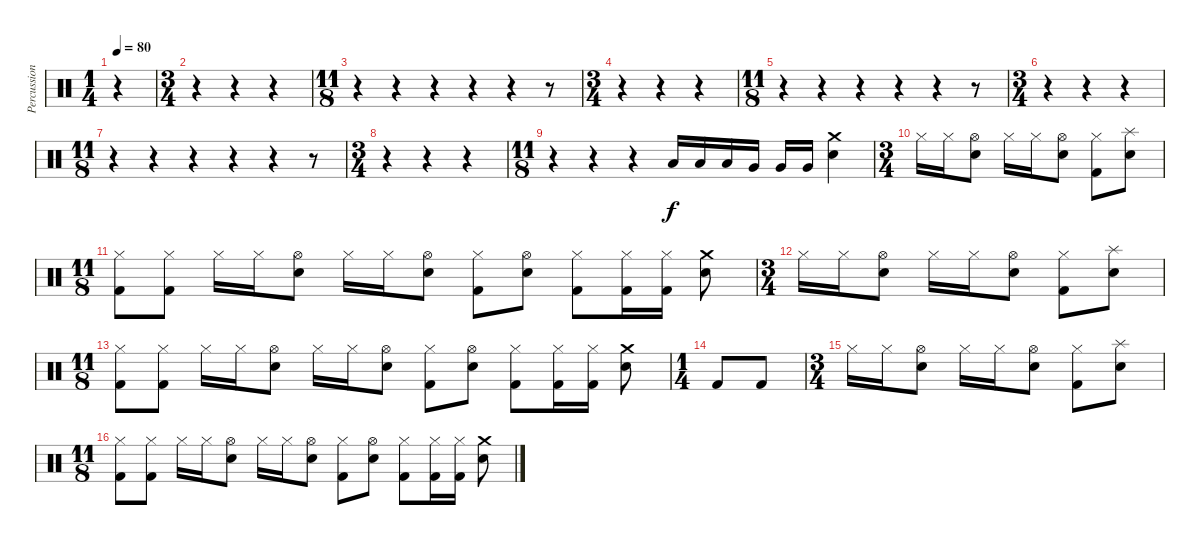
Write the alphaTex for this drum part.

\track ("Percussion" "Percussion") {instrument percussion}
\staff {score}
\articulation defaults
\ts (1 4)
\tempo 80
\clef neutral
\ks c
r.4{dy f} |
\ts (3 4)
r.4 r.4 r.4 |
\ts (11 8)
r.4 r.4 r.4 r.4 r.4 r.8 |
\ts (3 4)
r.4 r.4 r.4 |
\ts (11 8)
r.4 r.4 r.4 r.4 r.4 r.8 |
\ts (3 4)
r.4 r.4 r.4 |
\ts (11 8)
r.4 r.4 r.4 r.4 r.4 r.8 |
\ts (3 4)
r.4 r.4 r.4 |
\ts (11 8)
r.4 r.4 r.4 "Low Tom (hit)".16 "Low Tom (hit)".16 "Low Tom (hit)".16 "Very Low Tom (hit)".16 "Very Low Tom (hit)".16 "Very Low Tom (hit)".16 ("Crash medium (hit)" "Electric Snare (hit)").4 |
\ts (3 4)
"Hi-Hat (closed)".16 "Hi-Hat (closed)".16 ("Hi-Hat (open)" "Electric Snare (hit)").8 "Hi-Hat (closed)".16 "Hi-Hat (closed)".16 ("Hi-Hat (open)" "Electric Snare (hit)").8 ("Hi-Hat (closed)" "Kick (hit) 2").8 ("Splash (hit)" "Electric Snare (hit)").8 |
\ts (11 8)
("Hi-Hat (closed)" "Kick (hit) 2").8 ("Hi-Hat (closed)" "Kick (hit) 2").8 "Hi-Hat (closed)".16 "Hi-Hat (closed)".16 ("Hi-Hat (open)" "Electric Snare (hit)").8 "Hi-Hat (closed)".16 "Hi-Hat (closed)".16 ("Hi-Hat (open)" "Electric Snare (hit)").8 ("Hi-Hat (closed)" "Kick (hit) 2").8 ("Hi-Hat (open)" "Electric Snare (hit)").8 ("Hi-Hat (closed)" "Kick (hit) 2").8 ("Hi-Hat (closed)" "Kick (hit) 2").16 ("Hi-Hat (closed)" "Kick (hit) 2").16 ("Crash medium (hit)" "Electric Snare (hit)").8 |
\ts (3 4)
"Hi-Hat (closed)".16 "Hi-Hat (closed)".16 ("Hi-Hat (open)" "Electric Snare (hit)").8 "Hi-Hat (closed)".16 "Hi-Hat (closed)".16 ("Hi-Hat (open)" "Electric Snare (hit)").8 ("Hi-Hat (closed)" "Kick (hit) 2").8 ("Splash (hit)" "Electric Snare (hit)").8 |
\ts (11 8)
("Hi-Hat (closed)" "Kick (hit) 2").8 ("Hi-Hat (closed)" "Kick (hit) 2").8 "Hi-Hat (closed)".16 "Hi-Hat (closed)".16 ("Hi-Hat (open)" "Electric Snare (hit)").8 "Hi-Hat (closed)".16 "Hi-Hat (closed)".16 ("Hi-Hat (open)" "Electric Snare (hit)").8 ("Hi-Hat (closed)" "Kick (hit) 2").8 ("Hi-Hat (open)" "Electric Snare (hit)").8 ("Hi-Hat (closed)" "Kick (hit) 2").8 ("Hi-Hat (closed)" "Kick (hit) 2").16 ("Hi-Hat (closed)" "Kick (hit) 2").16 ("Crash medium (hit)" "Electric Snare (hit)").8 |
\ts (1 4)
"Kick (hit) 2".8 "Kick (hit) 2".8 |
\ts (3 4)
"Hi-Hat (closed)".16 "Hi-Hat (closed)".16 ("Hi-Hat (open)" "Electric Snare (hit)").8 "Hi-Hat (closed)".16 "Hi-Hat (closed)".16 ("Hi-Hat (open)" "Electric Snare (hit)").8 ("Hi-Hat (closed)" "Kick (hit) 2").8 ("Splash (hit)" "Electric Snare (hit)").8 |
\ts (11 8)
("Hi-Hat (closed)" "Kick (hit) 2").8 ("Hi-Hat (closed)" "Kick (hit) 2").8 "Hi-Hat (closed)".16 "Hi-Hat (closed)".16 ("Hi-Hat (open)" "Electric Snare (hit)").8 "Hi-Hat (closed)".16 "Hi-Hat (closed)".16 ("Hi-Hat (open)" "Electric Snare (hit)").8 ("Hi-Hat (closed)" "Kick (hit) 2").8 ("Hi-Hat (open)" "Electric Snare (hit)").8 ("Hi-Hat (closed)" "Kick (hit) 2").8 ("Hi-Hat (closed)" "Kick (hit) 2").16 ("Hi-Hat (closed)" "Kick (hit) 2").16 ("Crash medium (hit)" "Electric Snare (hit)").8
